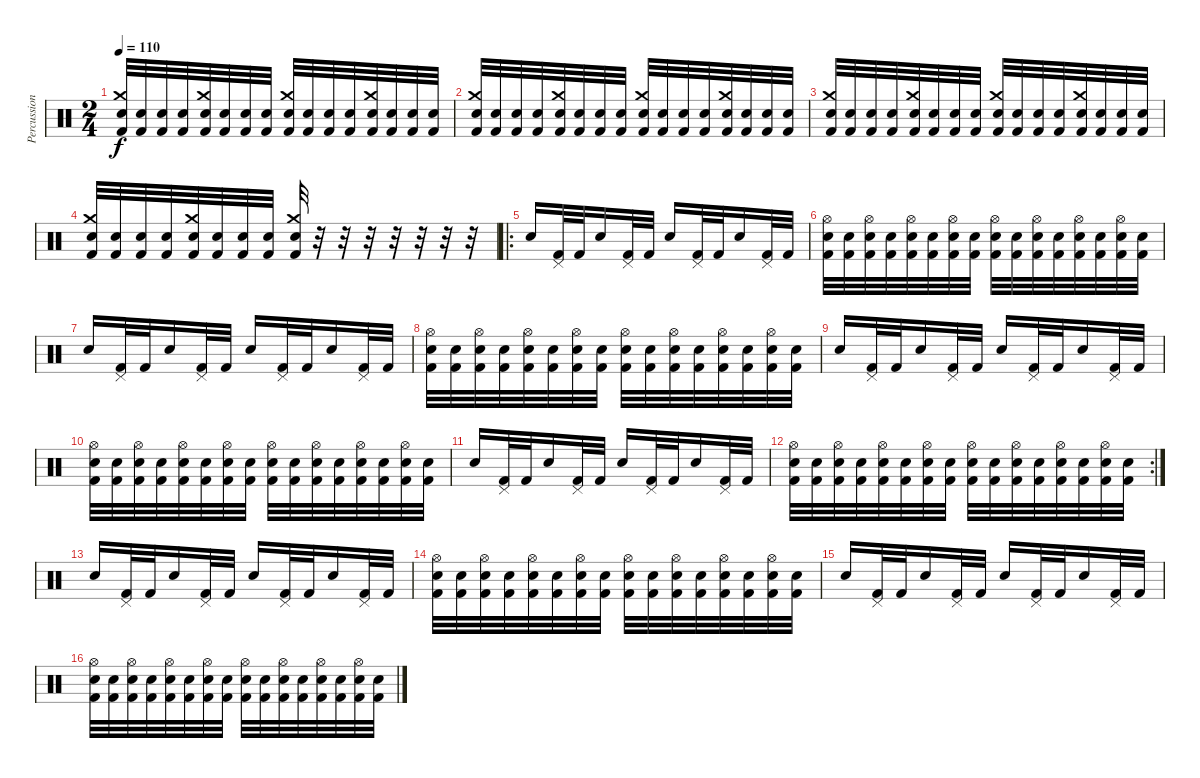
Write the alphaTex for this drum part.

\track ("Percussion" "Percussion") {instrument percussion}
\staff {score}
\articulation defaults
\ts (2 4)
\tempo 110
\clef neutral
\ks c
("Snare (hit) 2" "Crash medium (hit)" "Kick (hit) 2").32{dy f} ("Snare (hit) 2" "Kick (hit) 2").32 ("Snare (hit) 2" "Kick (hit) 2").32 ("Snare (hit) 2" "Kick (hit) 2").32 ("Snare (hit) 2" "Crash medium (hit)" "Kick (hit) 2").32 ("Snare (hit) 2" "Kick (hit) 2").32 ("Snare (hit) 2" "Kick (hit) 2").32 ("Snare (hit) 2" "Kick (hit) 2").32 ("Snare (hit) 2" "Crash medium (hit)" "Kick (hit) 2").32 ("Snare (hit) 2" "Kick (hit) 2").32 ("Snare (hit) 2" "Kick (hit) 2").32 ("Snare (hit) 2" "Kick (hit) 2").32 ("Snare (hit) 2" "Crash medium (hit)" "Kick (hit) 2").32 ("Snare (hit) 2" "Kick (hit) 2").32 ("Snare (hit) 2" "Kick (hit) 2").32 ("Snare (hit) 2" "Kick (hit) 2").32 |
("Snare (hit) 2" "Crash medium (hit)" "Kick (hit) 2").32 ("Snare (hit) 2" "Kick (hit) 2").32 ("Snare (hit) 2" "Kick (hit) 2").32 ("Snare (hit) 2" "Kick (hit) 2").32 ("Snare (hit) 2" "Crash medium (hit)" "Kick (hit) 2").32 ("Snare (hit) 2" "Kick (hit) 2").32 ("Snare (hit) 2" "Kick (hit) 2").32 ("Snare (hit) 2" "Kick (hit) 2").32 ("Snare (hit) 2" "Crash medium (hit)" "Kick (hit) 2").32 ("Snare (hit) 2" "Kick (hit) 2").32 ("Snare (hit) 2" "Kick (hit) 2").32 ("Snare (hit) 2" "Kick (hit) 2").32 ("Snare (hit) 2" "Crash medium (hit)" "Kick (hit) 2").32 ("Snare (hit) 2" "Kick (hit) 2").32 ("Snare (hit) 2" "Kick (hit) 2").32 ("Snare (hit) 2" "Kick (hit) 2").32 |
("Snare (hit) 2" "Crash medium (hit)" "Kick (hit) 2").32 ("Snare (hit) 2" "Kick (hit) 2").32 ("Snare (hit) 2" "Kick (hit) 2").32 ("Snare (hit) 2" "Kick (hit) 2").32 ("Snare (hit) 2" "Crash medium (hit)" "Kick (hit) 2").32 ("Snare (hit) 2" "Kick (hit) 2").32 ("Snare (hit) 2" "Kick (hit) 2").32 ("Snare (hit) 2" "Kick (hit) 2").32 ("Snare (hit) 2" "Crash medium (hit)" "Kick (hit) 2").32 ("Snare (hit) 2" "Kick (hit) 2").32 ("Snare (hit) 2" "Kick (hit) 2").32 ("Snare (hit) 2" "Kick (hit) 2").32 ("Snare (hit) 2" "Crash medium (hit)" "Kick (hit) 2").32 ("Snare (hit) 2" "Kick (hit) 2").32 ("Snare (hit) 2" "Kick (hit) 2").32 ("Snare (hit) 2" "Kick (hit) 2").32 |
("Snare (hit) 2" "Crash medium (hit)" "Kick (hit) 2").32 ("Snare (hit) 2" "Kick (hit) 2").32 ("Snare (hit) 2" "Kick (hit) 2").32 ("Snare (hit) 2" "Kick (hit) 2").32 ("Snare (hit) 2" "Crash medium (hit)" "Kick (hit) 2").32 ("Snare (hit) 2" "Kick (hit) 2").32 ("Snare (hit) 2" "Kick (hit) 2").32 ("Snare (hit) 2" "Kick (hit) 2").32 ("Snare (hit) 2" "Crash medium (hit)" "Kick (hit) 2").32 r.32 r.32 r.32 r.32 r.32 r.32 r.32 |
\ro "Snare (hit) 2".16
("Pedal Hi-Hat (hit)" "Kick (hit) 2").32 "Kick (hit) 2".32 "Snare (hit) 2".16 ("Pedal Hi-Hat (hit)" "Kick (hit) 2").32 "Kick (hit) 2".32 "Snare (hit) 2".16 ("Pedal Hi-Hat (hit)" "Kick (hit) 2").32 "Kick (hit) 2".32 "Snare (hit) 2".16 ("Pedal Hi-Hat (hit)" "Kick (hit) 2").32 "Kick (hit) 2".32 |
("Snare (hit) 2" "Hi-Hat (open)" "Kick (hit) 2").32 ("Snare (hit) 2" "Kick (hit) 2").32 ("Snare (hit) 2" "Hi-Hat (open)" "Kick (hit) 2").32 ("Snare (hit) 2" "Kick (hit) 2").32 ("Snare (hit) 2" "Hi-Hat (open)" "Kick (hit) 2").32 ("Snare (hit) 2" "Kick (hit) 2").32 ("Snare (hit) 2" "Hi-Hat (open)" "Kick (hit) 2").32 ("Snare (hit) 2" "Kick (hit) 2").32 ("Snare (hit) 2" "Hi-Hat (open)" "Kick (hit) 2").32 ("Snare (hit) 2" "Kick (hit) 2").32 ("Snare (hit) 2" "Hi-Hat (open)" "Kick (hit) 2").32 ("Snare (hit) 2" "Kick (hit) 2").32 ("Snare (hit) 2" "Hi-Hat (open)" "Kick (hit) 2").32 ("Snare (hit) 2" "Kick (hit) 2").32 ("Snare (hit) 2" "Hi-Hat (open)" "Kick (hit) 2").32 ("Snare (hit) 2" "Kick (hit) 2").32 |
"Snare (hit) 2".16 ("Pedal Hi-Hat (hit)" "Kick (hit) 2").32 "Kick (hit) 2".32 "Snare (hit) 2".16 ("Pedal Hi-Hat (hit)" "Kick (hit) 2").32 "Kick (hit) 2".32 "Snare (hit) 2".16 ("Pedal Hi-Hat (hit)" "Kick (hit) 2").32 "Kick (hit) 2".32 "Snare (hit) 2".16 ("Pedal Hi-Hat (hit)" "Kick (hit) 2").32 "Kick (hit) 2".32 |
("Snare (hit) 2" "Hi-Hat (open)" "Kick (hit) 2").32 ("Snare (hit) 2" "Kick (hit) 2").32 ("Snare (hit) 2" "Hi-Hat (open)" "Kick (hit) 2").32 ("Snare (hit) 2" "Kick (hit) 2").32 ("Snare (hit) 2" "Hi-Hat (open)" "Kick (hit) 2").32 ("Snare (hit) 2" "Kick (hit) 2").32 ("Snare (hit) 2" "Hi-Hat (open)" "Kick (hit) 2").32 ("Snare (hit) 2" "Kick (hit) 2").32 ("Snare (hit) 2" "Hi-Hat (open)" "Kick (hit) 2").32 ("Snare (hit) 2" "Kick (hit) 2").32 ("Snare (hit) 2" "Hi-Hat (open)" "Kick (hit) 2").32 ("Snare (hit) 2" "Kick (hit) 2").32 ("Snare (hit) 2" "Hi-Hat (open)" "Kick (hit) 2").32 ("Snare (hit) 2" "Kick (hit) 2").32 ("Snare (hit) 2" "Hi-Hat (open)" "Kick (hit) 2").32 ("Snare (hit) 2" "Kick (hit) 2").32 |
"Snare (hit) 2".16 ("Pedal Hi-Hat (hit)" "Kick (hit) 2").32 "Kick (hit) 2".32 "Snare (hit) 2".16 ("Pedal Hi-Hat (hit)" "Kick (hit) 2").32 "Kick (hit) 2".32 "Snare (hit) 2".16 ("Pedal Hi-Hat (hit)" "Kick (hit) 2").32 "Kick (hit) 2".32 "Snare (hit) 2".16 ("Pedal Hi-Hat (hit)" "Kick (hit) 2").32 "Kick (hit) 2".32 |
("Snare (hit) 2" "Hi-Hat (open)" "Kick (hit) 2").32 ("Snare (hit) 2" "Kick (hit) 2").32 ("Snare (hit) 2" "Hi-Hat (open)" "Kick (hit) 2").32 ("Snare (hit) 2" "Kick (hit) 2").32 ("Snare (hit) 2" "Hi-Hat (open)" "Kick (hit) 2").32 ("Snare (hit) 2" "Kick (hit) 2").32 ("Snare (hit) 2" "Hi-Hat (open)" "Kick (hit) 2").32 ("Snare (hit) 2" "Kick (hit) 2").32 ("Snare (hit) 2" "Hi-Hat (open)" "Kick (hit) 2").32 ("Snare (hit) 2" "Kick (hit) 2").32 ("Snare (hit) 2" "Hi-Hat (open)" "Kick (hit) 2").32 ("Snare (hit) 2" "Kick (hit) 2").32 ("Snare (hit) 2" "Hi-Hat (open)" "Kick (hit) 2").32 ("Snare (hit) 2" "Kick (hit) 2").32 ("Snare (hit) 2" "Hi-Hat (open)" "Kick (hit) 2").32 ("Snare (hit) 2" "Kick (hit) 2").32 |
"Snare (hit) 2".16 ("Pedal Hi-Hat (hit)" "Kick (hit) 2").32 "Kick (hit) 2".32 "Snare (hit) 2".16 ("Pedal Hi-Hat (hit)" "Kick (hit) 2").32 "Kick (hit) 2".32 "Snare (hit) 2".16 ("Pedal Hi-Hat (hit)" "Kick (hit) 2").32 "Kick (hit) 2".32 "Snare (hit) 2".16 ("Pedal Hi-Hat (hit)" "Kick (hit) 2").32 "Kick (hit) 2".32 |
\rc 2
("Snare (hit) 2" "Hi-Hat (open)" "Kick (hit) 2").32 ("Snare (hit) 2" "Kick (hit) 2").32 ("Snare (hit) 2" "Hi-Hat (open)" "Kick (hit) 2").32 ("Snare (hit) 2" "Kick (hit) 2").32 ("Snare (hit) 2" "Hi-Hat (open)" "Kick (hit) 2").32 ("Snare (hit) 2" "Kick (hit) 2").32 ("Snare (hit) 2" "Hi-Hat (open)" "Kick (hit) 2").32 ("Snare (hit) 2" "Kick (hit) 2").32 ("Snare (hit) 2" "Hi-Hat (open)" "Kick (hit) 2").32 ("Snare (hit) 2" "Kick (hit) 2").32 ("Snare (hit) 2" "Hi-Hat (open)" "Kick (hit) 2").32 ("Snare (hit) 2" "Kick (hit) 2").32 ("Snare (hit) 2" "Hi-Hat (open)" "Kick (hit) 2").32 ("Snare (hit) 2" "Kick (hit) 2").32 ("Snare (hit) 2" "Hi-Hat (open)" "Kick (hit) 2").32 ("Snare (hit) 2" "Kick (hit) 2").32 |
"Snare (hit) 2".16 ("Pedal Hi-Hat (hit)" "Kick (hit) 2").32 "Kick (hit) 2".32 "Snare (hit) 2".16 ("Pedal Hi-Hat (hit)" "Kick (hit) 2").32 "Kick (hit) 2".32 "Snare (hit) 2".16 ("Pedal Hi-Hat (hit)" "Kick (hit) 2").32 "Kick (hit) 2".32 "Snare (hit) 2".16 ("Pedal Hi-Hat (hit)" "Kick (hit) 2").32 "Kick (hit) 2".32 |
("Snare (hit) 2" "Hi-Hat (open)" "Kick (hit) 2").32 ("Snare (hit) 2" "Kick (hit) 2").32 ("Snare (hit) 2" "Hi-Hat (open)" "Kick (hit) 2").32 ("Snare (hit) 2" "Kick (hit) 2").32 ("Snare (hit) 2" "Hi-Hat (open)" "Kick (hit) 2").32 ("Snare (hit) 2" "Kick (hit) 2").32 ("Snare (hit) 2" "Hi-Hat (open)" "Kick (hit) 2").32 ("Snare (hit) 2" "Kick (hit) 2").32 ("Snare (hit) 2" "Hi-Hat (open)" "Kick (hit) 2").32 ("Snare (hit) 2" "Kick (hit) 2").32 ("Snare (hit) 2" "Hi-Hat (open)" "Kick (hit) 2").32 ("Snare (hit) 2" "Kick (hit) 2").32 ("Snare (hit) 2" "Hi-Hat (open)" "Kick (hit) 2").32 ("Snare (hit) 2" "Kick (hit) 2").32 ("Snare (hit) 2" "Hi-Hat (open)" "Kick (hit) 2").32 ("Snare (hit) 2" "Kick (hit) 2").32 |
"Snare (hit) 2".16 ("Pedal Hi-Hat (hit)" "Kick (hit) 2").32 "Kick (hit) 2".32 "Snare (hit) 2".16 ("Pedal Hi-Hat (hit)" "Kick (hit) 2").32 "Kick (hit) 2".32 "Snare (hit) 2".16 ("Pedal Hi-Hat (hit)" "Kick (hit) 2").32 "Kick (hit) 2".32 "Snare (hit) 2".16 ("Pedal Hi-Hat (hit)" "Kick (hit) 2").32 "Kick (hit) 2".32 |
("Snare (hit) 2" "Hi-Hat (open)" "Kick (hit) 2").32 ("Snare (hit) 2" "Kick (hit) 2").32 ("Snare (hit) 2" "Hi-Hat (open)" "Kick (hit) 2").32 ("Snare (hit) 2" "Kick (hit) 2").32 ("Snare (hit) 2" "Hi-Hat (open)" "Kick (hit) 2").32 ("Snare (hit) 2" "Kick (hit) 2").32 ("Snare (hit) 2" "Hi-Hat (open)" "Kick (hit) 2").32 ("Snare (hit) 2" "Kick (hit) 2").32 ("Snare (hit) 2" "Hi-Hat (open)" "Kick (hit) 2").32 ("Snare (hit) 2" "Kick (hit) 2").32 ("Snare (hit) 2" "Hi-Hat (open)" "Kick (hit) 2").32 ("Snare (hit) 2" "Kick (hit) 2").32 ("Snare (hit) 2" "Hi-Hat (open)" "Kick (hit) 2").32 ("Snare (hit) 2" "Kick (hit) 2").32 ("Snare (hit) 2" "Hi-Hat (open)" "Kick (hit) 2").32 ("Snare (hit) 2" "Kick (hit) 2").32
